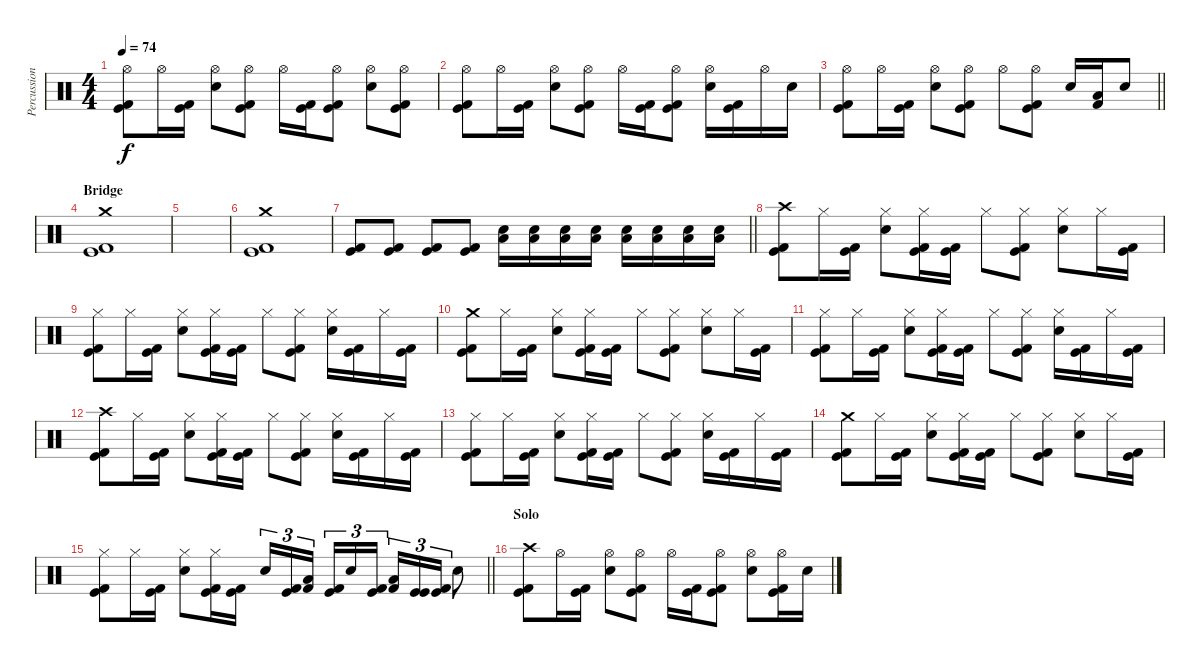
\track ("Percussion" "Percussion") {instrument percussion}
\staff {score}
\articulation defaults
\ts (4 4)
\tempo 74
\clef neutral
\ks c
("Hi-Hat (open)" "Kick (hit)" "Kick (hit) 2").8{dy f} "Hi-Hat (open)".16 ("Kick (hit)" "Kick (hit) 2").16 ("Hi-Hat (open)" "Electric Snare (hit)").8 ("Hi-Hat (open)" "Kick (hit)" "Kick (hit) 2").8 "Hi-Hat (open)".16 ("Kick (hit)" "Kick (hit) 2").16 ("Hi-Hat (open)" "Kick (hit)" "Kick (hit) 2").8 ("Hi-Hat (open)" "Electric Snare (hit)").8 ("Hi-Hat (open)" "Kick (hit)" "Kick (hit) 2").8 |
("Hi-Hat (open)" "Kick (hit)" "Kick (hit) 2").8 "Hi-Hat (open)".16 ("Kick (hit)" "Kick (hit) 2").16 ("Hi-Hat (open)" "Electric Snare (hit)").8 ("Hi-Hat (open)" "Kick (hit)" "Kick (hit) 2").8 "Hi-Hat (open)".16 ("Kick (hit)" "Kick (hit) 2").16 ("Hi-Hat (open)" "Kick (hit)" "Kick (hit) 2").8 ("Hi-Hat (open)" "Electric Snare (hit)").16 ("Kick (hit)" "Kick (hit) 2").16 "Hi-Hat (open)".16 "Electric Snare (hit)".16 |
\barLineRight lightlight
("Hi-Hat (open)" "Kick (hit)" "Kick (hit) 2").8 "Hi-Hat (open)".16 ("Kick (hit)" "Kick (hit) 2").16 ("Hi-Hat (open)" "Electric Snare (hit)").8 ("Hi-Hat (open)" "Kick (hit)" "Kick (hit) 2").8 "Hi-Hat (open)".8 ("Hi-Hat (open)" "Kick (hit)" "Kick (hit) 2").8 "Electric Snare (hit)".16 ("Low Tom (hit)" "Kick (hit) 2").16 "Electric Snare (hit)".8 |
\section ("" "Bridge")
("Crash medium (hit)" "Kick (hit)" "Kick (hit) 2").1 |
|
("Crash medium (hit)" "Kick (hit)" "Kick (hit) 2").1 |
\barLineRight lightlight
("Kick (hit)" "Kick (hit) 2").8 ("Kick (hit)" "Kick (hit) 2").8 ("Kick (hit)" "Kick (hit) 2").8 ("Kick (hit)" "Kick (hit) 2").8 ("Electric Snare (hit)" "Low Floor Tom (hit)").16 ("Electric Snare (hit)" "Low Floor Tom (hit)").16 ("Electric Snare (hit)" "Low Floor Tom (hit)").16 ("Electric Snare (hit)" "Low Floor Tom (hit)").16 ("Electric Snare (hit)" "Low Floor Tom (hit)").16 ("Electric Snare (hit)" "Low Floor Tom (hit)").16 ("Electric Snare (hit)" "Low Floor Tom (hit)").16 ("Electric Snare (hit)" "Low Floor Tom (hit)").16 |
\section ("" "")
("Crash high (hit)" "Kick (hit)" "Kick (hit) 2").8 "Hi-Hat (closed)".16 ("Kick (hit)" "Kick (hit) 2").16 ("Hi-Hat (closed)" "Electric Snare (hit)").8 ("Hi-Hat (closed)" "Kick (hit)" "Kick (hit) 2").16 ("Kick (hit)" "Kick (hit) 2").16 "Hi-Hat (closed)".8 ("Hi-Hat (closed)" "Kick (hit)" "Kick (hit) 2").8 ("Hi-Hat (closed)" "Electric Snare (hit)").8 "Hi-Hat (closed)".16 ("Kick (hit)" "Kick (hit) 2").16 |
("Hi-Hat (closed)" "Kick (hit)" "Kick (hit) 2").8 "Hi-Hat (closed)".16 ("Kick (hit)" "Kick (hit) 2").16 ("Hi-Hat (closed)" "Electric Snare (hit)").8 ("Hi-Hat (closed)" "Kick (hit)" "Kick (hit) 2").16 ("Kick (hit)" "Kick (hit) 2").16 "Hi-Hat (closed)".8 ("Hi-Hat (closed)" "Kick (hit)" "Kick (hit) 2").8 ("Hi-Hat (closed)" "Electric Snare (hit)").16 ("Kick (hit)" "Kick (hit) 2").16 "Hi-Hat (closed)".16 ("Kick (hit)" "Kick (hit) 2").16 |
("Crash medium (hit)" "Kick (hit)" "Kick (hit) 2").8 "Hi-Hat (closed)".16 ("Kick (hit)" "Kick (hit) 2").16 ("Hi-Hat (closed)" "Electric Snare (hit)").8 ("Hi-Hat (closed)" "Kick (hit)" "Kick (hit) 2").16 ("Kick (hit)" "Kick (hit) 2").16 "Hi-Hat (closed)".8 ("Hi-Hat (closed)" "Kick (hit)" "Kick (hit) 2").8 ("Hi-Hat (closed)" "Electric Snare (hit)").8 "Hi-Hat (closed)".16 ("Kick (hit)" "Kick (hit) 2").16 |
("Hi-Hat (closed)" "Kick (hit)" "Kick (hit) 2").8 "Hi-Hat (closed)".16 ("Kick (hit)" "Kick (hit) 2").16 ("Hi-Hat (closed)" "Electric Snare (hit)").8 ("Hi-Hat (closed)" "Kick (hit)" "Kick (hit) 2").16 ("Kick (hit)" "Kick (hit) 2").16 "Hi-Hat (closed)".8 ("Hi-Hat (closed)" "Kick (hit)" "Kick (hit) 2").8 ("Hi-Hat (closed)" "Electric Snare (hit)").16 ("Kick (hit)" "Kick (hit) 2").16 "Hi-Hat (closed)".16 ("Kick (hit)" "Kick (hit) 2").16 |
("Crash high (hit)" "Kick (hit)" "Kick (hit) 2").8 "Hi-Hat (closed)".16 ("Kick (hit)" "Kick (hit) 2").16 ("Hi-Hat (closed)" "Electric Snare (hit)").8 ("Hi-Hat (closed)" "Kick (hit)" "Kick (hit) 2").16 ("Kick (hit)" "Kick (hit) 2").16 "Hi-Hat (closed)".8 ("Hi-Hat (closed)" "Kick (hit)" "Kick (hit) 2").8 ("Hi-Hat (closed)" "Electric Snare (hit)").16 ("Kick (hit)" "Kick (hit) 2").16 "Hi-Hat (closed)".16 ("Kick (hit)" "Kick (hit) 2").16 |
("Hi-Hat (closed)" "Kick (hit)" "Kick (hit) 2").8 "Hi-Hat (closed)".16 ("Kick (hit)" "Kick (hit) 2").16 ("Hi-Hat (closed)" "Electric Snare (hit)").8 ("Hi-Hat (closed)" "Kick (hit)" "Kick (hit) 2").16 ("Kick (hit)" "Kick (hit) 2").16 "Hi-Hat (closed)".8 ("Hi-Hat (closed)" "Kick (hit)" "Kick (hit) 2").8 ("Hi-Hat (closed)" "Electric Snare (hit)").16 ("Kick (hit)" "Kick (hit) 2").16 "Hi-Hat (closed)".16 ("Kick (hit)" "Kick (hit) 2").16 |
("Crash medium (hit)" "Kick (hit)" "Kick (hit) 2").8 "Hi-Hat (closed)".16 ("Kick (hit)" "Kick (hit) 2").16 ("Hi-Hat (closed)" "Electric Snare (hit)").8 ("Hi-Hat (closed)" "Kick (hit)" "Kick (hit) 2").16 ("Kick (hit)" "Kick (hit) 2").16 "Hi-Hat (closed)".8 ("Hi-Hat (closed)" "Kick (hit)" "Kick (hit) 2").8 ("Hi-Hat (closed)" "Electric Snare (hit)").8 "Hi-Hat (closed)".16 ("Kick (hit)" "Kick (hit) 2").16 |
\barLineRight lightlight
("Hi-Hat (closed)" "Kick (hit)" "Kick (hit) 2").8 "Hi-Hat (closed)".16 ("Kick (hit)" "Kick (hit) 2").16 ("Hi-Hat (closed)" "Electric Snare (hit)").8 ("Hi-Hat (closed)" "Kick (hit)" "Kick (hit) 2").16 ("Kick (hit)" "Kick (hit) 2").16 "Electric Snare (hit)".16{tu (3 2)} ("Kick (hit)" "Kick (hit) 2").16{tu (3 2)} ("Low Tom (hit)" "Kick (hit) 2").16{tu (3 2) beam splitsecondary} ("Kick (hit)" "Kick (hit) 2").16{tu (3 2)} "Electric Snare (hit)".16{tu (3 2)} ("Kick (hit)" "Kick (hit) 2").16{tu (3 2)} ("Low Tom (hit)" "Kick (hit) 2").16{tu (3 2)} ("Kick (hit)" "Kick (hit)").16{tu (3 2)} ("Kick (hit)" "Kick (hit) 2").16{tu (3 2)} "Electric Snare (hit)".8 |
\section ("" "Solo")
("Crash high (hit)" "Kick (hit)" "Kick (hit) 2").8 "Hi-Hat (open)".16 ("Kick (hit)" "Kick (hit) 2").16 ("Hi-Hat (open)" "Electric Snare (hit)").8 ("Hi-Hat (open)" "Kick (hit)" "Kick (hit) 2").8 "Hi-Hat (open)".16 ("Kick (hit)" "Kick (hit) 2").16 ("Hi-Hat (open)" "Kick (hit)" "Kick (hit) 2").8 ("Hi-Hat (open)" "Electric Snare (hit)").8 ("Hi-Hat (open)" "Kick (hit)" "Kick (hit) 2").16 "Electric Snare (hit)".16
